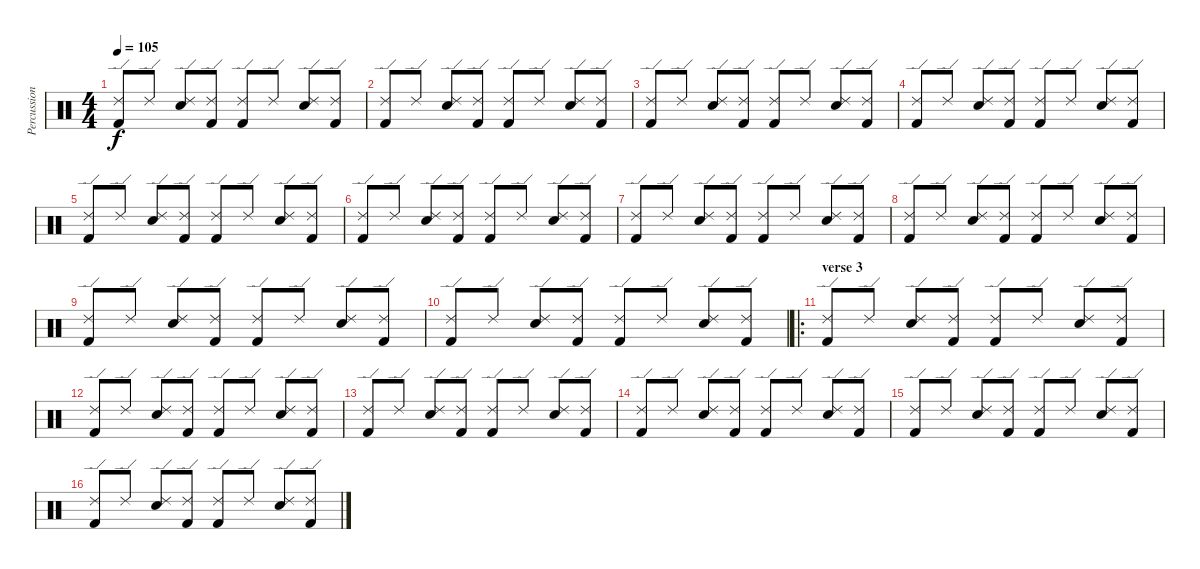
\track ("Percussion" "Percussion") {instrument percussion}
\staff {score}
\articulation defaults
\ts (4 4)
\tempo 105
\clef neutral
\ks c
("Ride (edge) 2" "Kick (hit) 2").8{dy f} "Ride (edge) 2".8 ("Ride (edge) 2" "Electric Snare (hit)").8 ("Ride (edge) 2" "Kick (hit) 2").8 ("Ride (edge) 2" "Kick (hit) 2").8 "Ride (edge) 2".8 ("Ride (edge) 2" "Electric Snare (hit)").8 ("Ride (edge) 2" "Kick (hit) 2").8 |
("Ride (edge) 2" "Kick (hit) 2").8 "Ride (edge) 2".8 ("Ride (edge) 2" "Electric Snare (hit)").8 ("Ride (edge) 2" "Kick (hit) 2").8 ("Ride (edge) 2" "Kick (hit) 2").8 "Ride (edge) 2".8 ("Ride (edge) 2" "Electric Snare (hit)").8 ("Ride (edge) 2" "Kick (hit) 2").8 |
("Ride (edge) 2" "Kick (hit) 2").8 "Ride (edge) 2".8 ("Ride (edge) 2" "Electric Snare (hit)").8 ("Ride (edge) 2" "Kick (hit) 2").8 ("Ride (edge) 2" "Kick (hit) 2").8 "Ride (edge) 2".8 ("Ride (edge) 2" "Electric Snare (hit)").8 ("Ride (edge) 2" "Kick (hit) 2").8 |
("Ride (edge) 2" "Kick (hit) 2").8 "Ride (edge) 2".8 ("Ride (edge) 2" "Electric Snare (hit)").8 ("Ride (edge) 2" "Kick (hit) 2").8 ("Ride (edge) 2" "Kick (hit) 2").8 "Ride (edge) 2".8 ("Ride (edge) 2" "Electric Snare (hit)").8 ("Ride (edge) 2" "Kick (hit) 2").8 |
("Ride (edge) 2" "Kick (hit) 2").8 "Ride (edge) 2".8 ("Ride (edge) 2" "Electric Snare (hit)").8 ("Ride (edge) 2" "Kick (hit) 2").8 ("Ride (edge) 2" "Kick (hit) 2").8 "Ride (edge) 2".8 ("Ride (edge) 2" "Electric Snare (hit)").8 ("Ride (edge) 2" "Kick (hit) 2").8 |
("Ride (edge) 2" "Kick (hit) 2").8 "Ride (edge) 2".8 ("Ride (edge) 2" "Electric Snare (hit)").8 ("Ride (edge) 2" "Kick (hit) 2").8 ("Ride (edge) 2" "Kick (hit) 2").8 "Ride (edge) 2".8 ("Ride (edge) 2" "Electric Snare (hit)").8 ("Ride (edge) 2" "Kick (hit) 2").8 |
("Ride (edge) 2" "Kick (hit) 2").8 "Ride (edge) 2".8 ("Ride (edge) 2" "Electric Snare (hit)").8 ("Ride (edge) 2" "Kick (hit) 2").8 ("Ride (edge) 2" "Kick (hit) 2").8 "Ride (edge) 2".8 ("Ride (edge) 2" "Electric Snare (hit)").8 ("Ride (edge) 2" "Kick (hit) 2").8 |
("Ride (edge) 2" "Kick (hit) 2").8 "Ride (edge) 2".8 ("Ride (edge) 2" "Electric Snare (hit)").8 ("Ride (edge) 2" "Kick (hit) 2").8 ("Ride (edge) 2" "Kick (hit) 2").8 "Ride (edge) 2".8 ("Ride (edge) 2" "Electric Snare (hit)").8 ("Ride (edge) 2" "Kick (hit) 2").8 |
("Ride (edge) 2" "Kick (hit) 2").8 "Ride (edge) 2".8 ("Ride (edge) 2" "Electric Snare (hit)").8 ("Ride (edge) 2" "Kick (hit) 2").8 ("Ride (edge) 2" "Kick (hit) 2").8 "Ride (edge) 2".8 ("Ride (edge) 2" "Electric Snare (hit)").8 ("Ride (edge) 2" "Kick (hit) 2").8 |
("Ride (edge) 2" "Kick (hit) 2").8 "Ride (edge) 2".8 ("Ride (edge) 2" "Electric Snare (hit)").8 ("Ride (edge) 2" "Kick (hit) 2").8 ("Ride (edge) 2" "Kick (hit) 2").8 "Ride (edge) 2".8 ("Ride (edge) 2" "Electric Snare (hit)").8 ("Ride (edge) 2" "Kick (hit) 2").8 |
\ro
\section ("" "verse 3")
("Ride (edge) 2" "Kick (hit) 2").8 "Ride (edge) 2".8 ("Ride (edge) 2" "Electric Snare (hit)").8 ("Ride (edge) 2" "Kick (hit) 2").8 ("Ride (edge) 2" "Kick (hit) 2").8 "Ride (edge) 2".8 ("Ride (edge) 2" "Electric Snare (hit)").8 ("Ride (edge) 2" "Kick (hit) 2").8 |
("Ride (edge) 2" "Kick (hit) 2").8 "Ride (edge) 2".8 ("Ride (edge) 2" "Electric Snare (hit)").8 ("Ride (edge) 2" "Kick (hit) 2").8 ("Ride (edge) 2" "Kick (hit) 2").8 "Ride (edge) 2".8 ("Ride (edge) 2" "Electric Snare (hit)").8 ("Ride (edge) 2" "Kick (hit) 2").8 |
("Ride (edge) 2" "Kick (hit) 2").8 "Ride (edge) 2".8 ("Ride (edge) 2" "Electric Snare (hit)").8 ("Ride (edge) 2" "Kick (hit) 2").8 ("Ride (edge) 2" "Kick (hit) 2").8 "Ride (edge) 2".8 ("Ride (edge) 2" "Electric Snare (hit)").8 ("Ride (edge) 2" "Kick (hit) 2").8 |
("Ride (edge) 2" "Kick (hit) 2").8 "Ride (edge) 2".8 ("Ride (edge) 2" "Electric Snare (hit)").8 ("Ride (edge) 2" "Kick (hit) 2").8 ("Ride (edge) 2" "Kick (hit) 2").8 "Ride (edge) 2".8 ("Ride (edge) 2" "Electric Snare (hit)").8 ("Ride (edge) 2" "Kick (hit) 2").8 |
("Ride (edge) 2" "Kick (hit) 2").8 "Ride (edge) 2".8 ("Ride (edge) 2" "Electric Snare (hit)").8 ("Ride (edge) 2" "Kick (hit) 2").8 ("Ride (edge) 2" "Kick (hit) 2").8 "Ride (edge) 2".8 ("Ride (edge) 2" "Electric Snare (hit)").8 ("Ride (edge) 2" "Kick (hit) 2").8 |
("Ride (edge) 2" "Kick (hit) 2").8 "Ride (edge) 2".8 ("Ride (edge) 2" "Electric Snare (hit)").8 ("Ride (edge) 2" "Kick (hit) 2").8 ("Ride (edge) 2" "Kick (hit) 2").8 "Ride (edge) 2".8 ("Ride (edge) 2" "Electric Snare (hit)").8 ("Ride (edge) 2" "Kick (hit) 2").8
